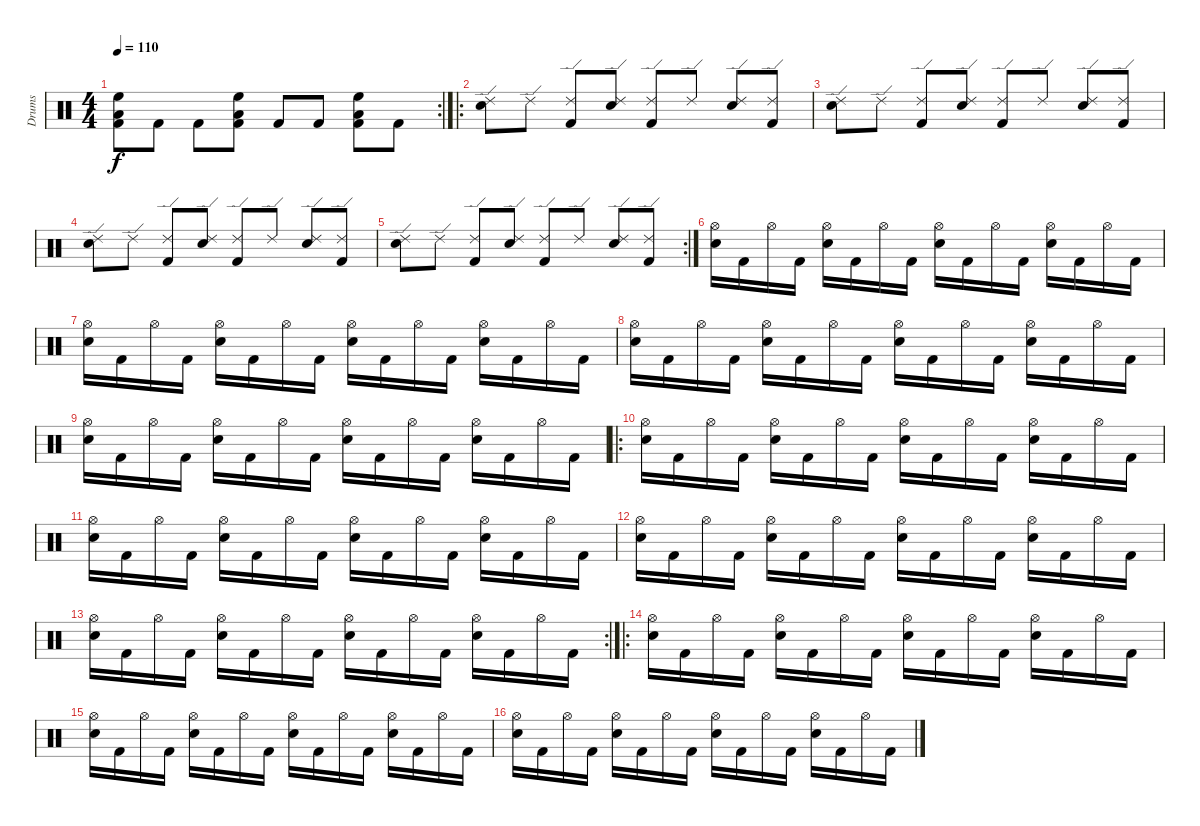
\track ("Drums" "Drums") {instrument percussion}
\staff {score}
\articulation defaults
\rc 2
\ts (4 4)
\tempo 110
\clef neutral
\ks c
("Kick (hit) 2" "Low Floor Tom (hit)" "High Floor Tom (hit)").8{dy f} "Kick (hit) 2".8 "Kick (hit) 2".8 ("Kick (hit) 2" "Low Floor Tom (hit)" "High Floor Tom (hit)").8 "Kick (hit) 2".8 "Kick (hit) 2".8 ("Kick (hit) 2" "Low Floor Tom (hit)" "High Floor Tom (hit)").8 "Kick (hit) 2".8 |
\ro
("Snare (hit) 2" "Ride (edge) 2").8 "Ride (edge) 2".8 ("Kick (hit) 2" "Ride (edge) 2").8 ("Snare (hit) 2" "Ride (edge) 2").8 ("Kick (hit) 2" "Ride (edge) 2").8 "Ride (edge) 2".8 ("Snare (hit) 2" "Ride (edge) 2").8 ("Kick (hit) 2" "Ride (edge) 2").8 |
("Snare (hit) 2" "Ride (edge) 2").8 "Ride (edge) 2".8 ("Kick (hit) 2" "Ride (edge) 2").8 ("Snare (hit) 2" "Ride (edge) 2").8 ("Kick (hit) 2" "Ride (edge) 2").8 "Ride (edge) 2".8 ("Snare (hit) 2" "Ride (edge) 2").8 ("Kick (hit) 2" "Ride (edge) 2").8 |
("Snare (hit) 2" "Ride (edge) 2").8 "Ride (edge) 2".8 ("Kick (hit) 2" "Ride (edge) 2").8 ("Snare (hit) 2" "Ride (edge) 2").8 ("Kick (hit) 2" "Ride (edge) 2").8 "Ride (edge) 2".8 ("Snare (hit) 2" "Ride (edge) 2").8 ("Kick (hit) 2" "Ride (edge) 2").8 |
\rc 2
("Snare (hit) 2" "Ride (edge) 2").8 "Ride (edge) 2".8 ("Kick (hit) 2" "Ride (edge) 2").8 ("Snare (hit) 2" "Ride (edge) 2").8 ("Kick (hit) 2" "Ride (edge) 2").8 "Ride (edge) 2".8 ("Snare (hit) 2" "Ride (edge) 2").8 ("Kick (hit) 2" "Ride (edge) 2").8 |
("Snare (hit) 2" "Hi-Hat (open)").16 "Kick (hit) 2".16 "Hi-Hat (open)".16 "Kick (hit) 2".16 ("Snare (hit) 2" "Hi-Hat (open)").16 "Kick (hit) 2".16 "Hi-Hat (open)".16 "Kick (hit) 2".16 ("Snare (hit) 2" "Hi-Hat (open)").16 "Kick (hit) 2".16 "Hi-Hat (open)".16 "Kick (hit) 2".16 ("Snare (hit) 2" "Hi-Hat (open)").16 "Kick (hit) 2".16 "Hi-Hat (open)".16 "Kick (hit) 2".16 |
("Snare (hit) 2" "Hi-Hat (open)").16 "Kick (hit) 2".16 "Hi-Hat (open)".16 "Kick (hit) 2".16 ("Snare (hit) 2" "Hi-Hat (open)").16 "Kick (hit) 2".16 "Hi-Hat (open)".16 "Kick (hit) 2".16 ("Snare (hit) 2" "Hi-Hat (open)").16 "Kick (hit) 2".16 "Hi-Hat (open)".16 "Kick (hit) 2".16 ("Snare (hit) 2" "Hi-Hat (open)").16 "Kick (hit) 2".16 "Hi-Hat (open)".16 "Kick (hit) 2".16 |
("Snare (hit) 2" "Hi-Hat (open)").16 "Kick (hit) 2".16 "Hi-Hat (open)".16 "Kick (hit) 2".16 ("Snare (hit) 2" "Hi-Hat (open)").16 "Kick (hit) 2".16 "Hi-Hat (open)".16 "Kick (hit) 2".16 ("Snare (hit) 2" "Hi-Hat (open)").16 "Kick (hit) 2".16 "Hi-Hat (open)".16 "Kick (hit) 2".16 ("Snare (hit) 2" "Hi-Hat (open)").16 "Kick (hit) 2".16 "Hi-Hat (open)".16 "Kick (hit) 2".16 |
("Snare (hit) 2" "Hi-Hat (open)").16 "Kick (hit) 2".16 "Hi-Hat (open)".16 "Kick (hit) 2".16 ("Snare (hit) 2" "Hi-Hat (open)").16 "Kick (hit) 2".16 "Hi-Hat (open)".16 "Kick (hit) 2".16 ("Snare (hit) 2" "Hi-Hat (open)").16 "Kick (hit) 2".16 "Hi-Hat (open)".16 "Kick (hit) 2".16 ("Snare (hit) 2" "Hi-Hat (open)").16 "Kick (hit) 2".16 "Hi-Hat (open)".16 "Kick (hit) 2".16 |
\ro
("Snare (hit) 2" "Hi-Hat (open)").16 "Kick (hit) 2".16 "Hi-Hat (open)".16 "Kick (hit) 2".16 ("Snare (hit) 2" "Hi-Hat (open)").16 "Kick (hit) 2".16 "Hi-Hat (open)".16 "Kick (hit) 2".16 ("Snare (hit) 2" "Hi-Hat (open)").16 "Kick (hit) 2".16 "Hi-Hat (open)".16 "Kick (hit) 2".16 ("Snare (hit) 2" "Hi-Hat (open)").16 "Kick (hit) 2".16 "Hi-Hat (open)".16 "Kick (hit) 2".16 |
("Snare (hit) 2" "Hi-Hat (open)").16 "Kick (hit) 2".16 "Hi-Hat (open)".16 "Kick (hit) 2".16 ("Snare (hit) 2" "Hi-Hat (open)").16 "Kick (hit) 2".16 "Hi-Hat (open)".16 "Kick (hit) 2".16 ("Snare (hit) 2" "Hi-Hat (open)").16 "Kick (hit) 2".16 "Hi-Hat (open)".16 "Kick (hit) 2".16 ("Snare (hit) 2" "Hi-Hat (open)").16 "Kick (hit) 2".16 "Hi-Hat (open)".16 "Kick (hit) 2".16 |
("Snare (hit) 2" "Hi-Hat (open)").16 "Kick (hit) 2".16 "Hi-Hat (open)".16 "Kick (hit) 2".16 ("Snare (hit) 2" "Hi-Hat (open)").16 "Kick (hit) 2".16 "Hi-Hat (open)".16 "Kick (hit) 2".16 ("Snare (hit) 2" "Hi-Hat (open)").16 "Kick (hit) 2".16 "Hi-Hat (open)".16 "Kick (hit) 2".16 ("Snare (hit) 2" "Hi-Hat (open)").16 "Kick (hit) 2".16 "Hi-Hat (open)".16 "Kick (hit) 2".16 |
\rc 2
("Snare (hit) 2" "Hi-Hat (open)").16 "Kick (hit) 2".16 "Hi-Hat (open)".16 "Kick (hit) 2".16 ("Snare (hit) 2" "Hi-Hat (open)").16 "Kick (hit) 2".16 "Hi-Hat (open)".16 "Kick (hit) 2".16 ("Snare (hit) 2" "Hi-Hat (open)").16 "Kick (hit) 2".16 "Hi-Hat (open)".16 "Kick (hit) 2".16 ("Snare (hit) 2" "Hi-Hat (open)").16 "Kick (hit) 2".16 "Hi-Hat (open)".16 "Kick (hit) 2".16 |
\ro
("Snare (hit) 2" "Hi-Hat (open)").16 "Kick (hit) 2".16 "Hi-Hat (open)".16 "Kick (hit) 2".16 ("Snare (hit) 2" "Hi-Hat (open)").16 "Kick (hit) 2".16 "Hi-Hat (open)".16 "Kick (hit) 2".16 ("Snare (hit) 2" "Hi-Hat (open)").16 "Kick (hit) 2".16 "Hi-Hat (open)".16 "Kick (hit) 2".16 ("Snare (hit) 2" "Hi-Hat (open)").16 "Kick (hit) 2".16 "Hi-Hat (open)".16 "Kick (hit) 2".16 |
("Snare (hit) 2" "Hi-Hat (open)").16 "Kick (hit) 2".16 "Hi-Hat (open)".16 "Kick (hit) 2".16 ("Snare (hit) 2" "Hi-Hat (open)").16 "Kick (hit) 2".16 "Hi-Hat (open)".16 "Kick (hit) 2".16 ("Snare (hit) 2" "Hi-Hat (open)").16 "Kick (hit) 2".16 "Hi-Hat (open)".16 "Kick (hit) 2".16 ("Snare (hit) 2" "Hi-Hat (open)").16 "Kick (hit) 2".16 "Hi-Hat (open)".16 "Kick (hit) 2".16 |
("Snare (hit) 2" "Hi-Hat (open)").16 "Kick (hit) 2".16 "Hi-Hat (open)".16 "Kick (hit) 2".16 ("Snare (hit) 2" "Hi-Hat (open)").16 "Kick (hit) 2".16 "Hi-Hat (open)".16 "Kick (hit) 2".16 ("Snare (hit) 2" "Hi-Hat (open)").16 "Kick (hit) 2".16 "Hi-Hat (open)".16 "Kick (hit) 2".16 ("Snare (hit) 2" "Hi-Hat (open)").16 "Kick (hit) 2".16 "Hi-Hat (open)".16 "Kick (hit) 2".16
